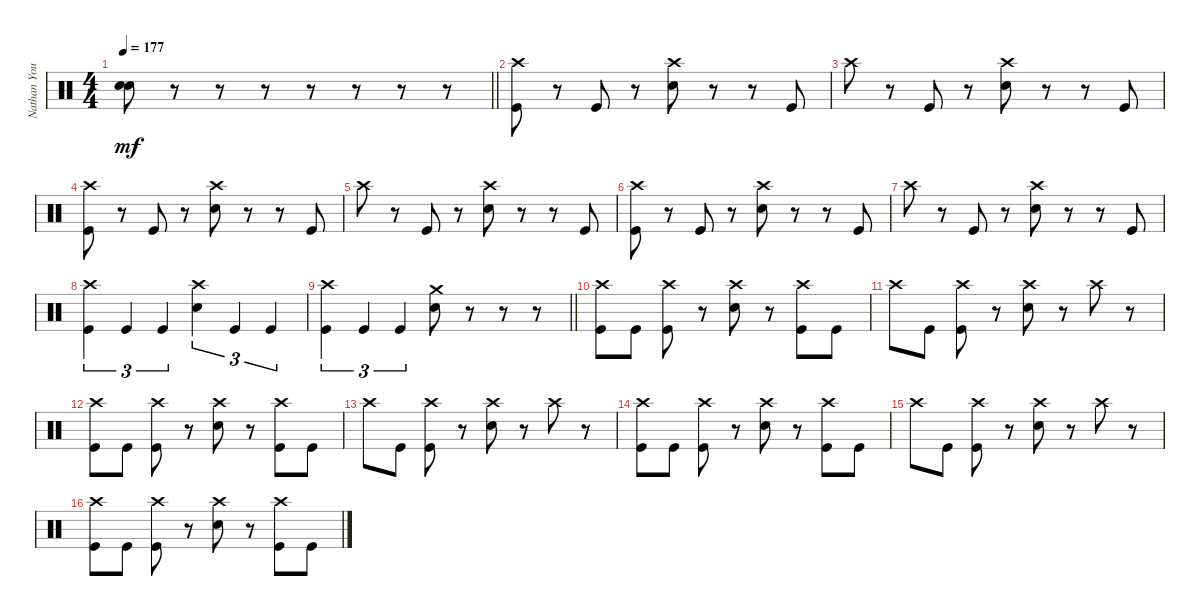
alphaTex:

\track ("Nathan Young" "Nathan You") {instrument percussion}
\staff {score}
\articulation defaults
\ts (4 4)
\tempo 177
\clef neutral
\barLineRight lightlight
\ks c
("Snare (hit) 2" "Snare (hit) 2").8{dy mf} r.8 r.8 r.8 r.8 r.8 r.8 r.8 |
("Crash high (hit)" "Kick (hit)").8 r.8 "Kick (hit)".8 r.8 ("Crash high (hit)" "Snare (hit) 2").8 r.8 r.8 "Kick (hit)".8 |
"Crash high (hit)".8 r.8 "Kick (hit)".8 r.8 ("Crash high (hit)" "Snare (hit) 2").8 r.8 r.8 "Kick (hit)".8 |
("Crash high (hit)" "Kick (hit)").8 r.8 "Kick (hit)".8 r.8 ("Crash high (hit)" "Snare (hit) 2").8 r.8 r.8 "Kick (hit)".8 |
"Crash high (hit)".8 r.8 "Kick (hit)".8 r.8 ("Crash high (hit)" "Snare (hit) 2").8 r.8 r.8 "Kick (hit)".8 |
("Crash high (hit)" "Kick (hit)").8 r.8 "Kick (hit)".8 r.8 ("Crash high (hit)" "Snare (hit) 2").8 r.8 r.8 "Kick (hit)".8 |
"Crash high (hit)".8 r.8 "Kick (hit)".8 r.8 ("Crash high (hit)" "Snare (hit) 2").8 r.8 r.8 "Kick (hit)".8 |
("Crash high (hit)" "Kick (hit)").4{tu (3 2)} "Kick (hit)".4{tu (3 2)} "Kick (hit)".4{tu (3 2)} ("Crash high (hit)" "Snare (hit) 2").4{tu (3 2)} "Kick (hit)".4{tu (3 2)} "Kick (hit)".4{tu (3 2)} |
\barLineRight lightlight
("Crash high (hit)" "Kick (hit)").4{tu (3 2)} "Kick (hit)".4{tu (3 2)} "Kick (hit)".4{tu (3 2)} ("Crash medium (hit)" "Snare (hit) 2").8 r.8 r.8 r.8 |
("Crash high (hit)" "Kick (hit)").8 "Kick (hit)".8 ("Crash high (hit)" "Kick (hit)").8 r.8 ("Crash high (hit)" "Snare (hit) 2").8 r.8 ("Crash high (hit)" "Kick (hit)").8 "Kick (hit)".8 |
"Crash high (hit)".8 "Kick (hit)".8 ("Crash high (hit)" "Kick (hit)").8 r.8 ("Crash high (hit)" "Snare (hit) 2").8 r.8 "Crash high (hit)".8 r.8 |
("Crash high (hit)" "Kick (hit)").8 "Kick (hit)".8 ("Crash high (hit)" "Kick (hit)").8 r.8 ("Crash high (hit)" "Snare (hit) 2").8 r.8 ("Crash high (hit)" "Kick (hit)").8 "Kick (hit)".8 |
"Crash high (hit)".8 "Kick (hit)".8 ("Crash high (hit)" "Kick (hit)").8 r.8 ("Crash high (hit)" "Snare (hit) 2").8 r.8 "Crash high (hit)".8 r.8 |
("Crash high (hit)" "Kick (hit)").8 "Kick (hit)".8 ("Crash high (hit)" "Kick (hit)").8 r.8 ("Crash high (hit)" "Snare (hit) 2").8 r.8 ("Crash high (hit)" "Kick (hit)").8 "Kick (hit)".8 |
"Crash high (hit)".8 "Kick (hit)".8 ("Crash high (hit)" "Kick (hit)").8 r.8 ("Crash high (hit)" "Snare (hit) 2").8 r.8 "Crash high (hit)".8 r.8 |
("Crash high (hit)" "Kick (hit)").8 "Kick (hit)".8 ("Crash high (hit)" "Kick (hit)").8 r.8 ("Crash high (hit)" "Snare (hit) 2").8 r.8 ("Crash high (hit)" "Kick (hit)").8 "Kick (hit)".8
